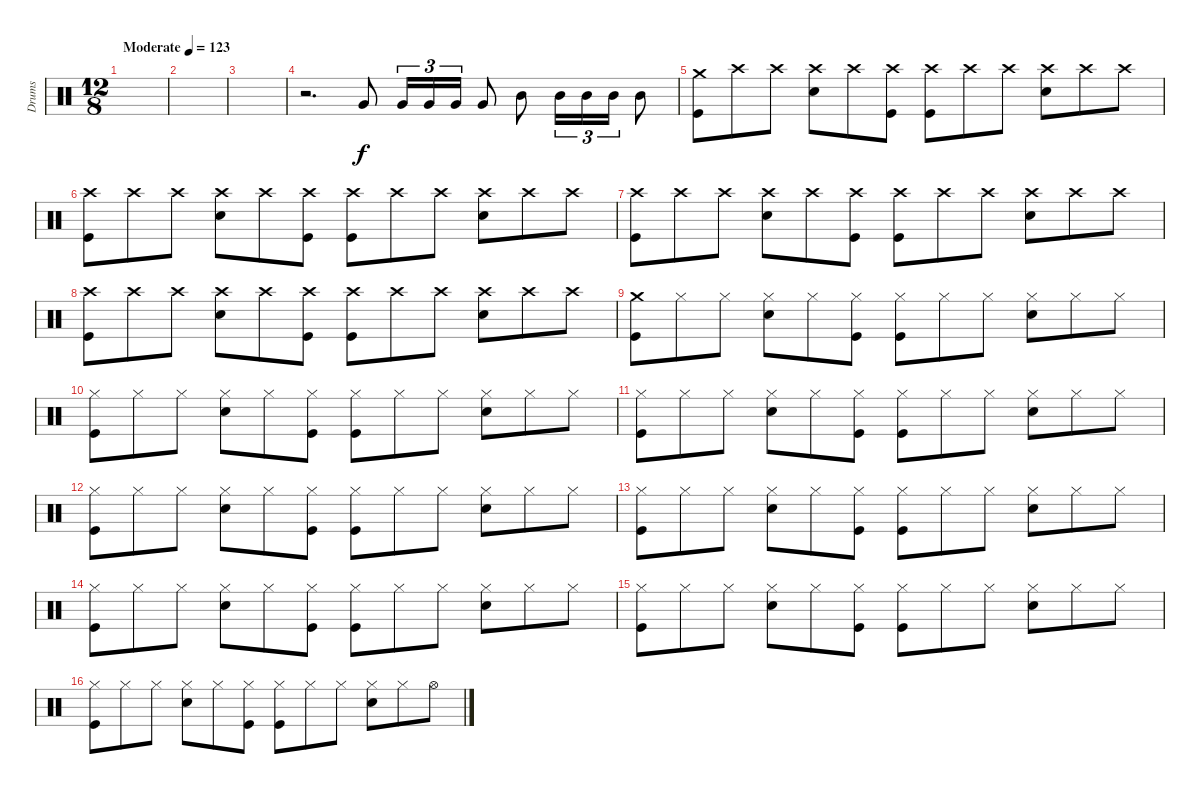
\track ("Drums" "Drums") {instrument percussion}
\staff {score}
\articulation defaults
\ts (12 8)
\tempo (123 "Moderate")
\clef neutral
\ks c
|
|
|
r.2{d} "Very Low Tom (hit)".8 "Very Low Tom (hit)".16{tu (3 2)} "Very Low Tom (hit)".16{tu (3 2)} "Very Low Tom (hit)".16{tu (3 2)} "Very Low Tom (hit)".8 "Mid Tom (hit)".8 "Mid Tom (hit)".16{tu (3 2)} "Mid Tom (hit)".16{tu (3 2)} "Mid Tom (hit)".16{tu (3 2)} "Mid Tom (hit)".8 |
("Crash medium (hit)" "Kick (hit)").8 "Crash high (hit)".8 "Crash high (hit)".8 ("Crash high (hit)" "Snare (hit) 2").8 "Crash high (hit)".8 ("Crash high (hit)" "Kick (hit)").8 ("Crash high (hit)" "Kick (hit)").8 "Crash high (hit)".8 "Crash high (hit)".8 ("Crash high (hit)" "Snare (hit) 2").8 "Crash high (hit)".8 "Crash high (hit)".8 |
("Crash high (hit)" "Kick (hit)").8 "Crash high (hit)".8 "Crash high (hit)".8 ("Crash high (hit)" "Snare (hit) 2").8 "Crash high (hit)".8 ("Crash high (hit)" "Kick (hit)").8 ("Crash high (hit)" "Kick (hit)").8 "Crash high (hit)".8 "Crash high (hit)".8 ("Crash high (hit)" "Snare (hit) 2").8 "Crash high (hit)".8 "Crash high (hit)".8 |
("Crash high (hit)" "Kick (hit)").8 "Crash high (hit)".8 "Crash high (hit)".8 ("Crash high (hit)" "Snare (hit) 2").8 "Crash high (hit)".8 ("Crash high (hit)" "Kick (hit)").8 ("Crash high (hit)" "Kick (hit)").8 "Crash high (hit)".8 "Crash high (hit)".8 ("Crash high (hit)" "Snare (hit) 2").8 "Crash high (hit)".8 "Crash high (hit)".8 |
("Crash high (hit)" "Kick (hit)").8 "Crash high (hit)".8 "Crash high (hit)".8 ("Crash high (hit)" "Snare (hit) 2").8 "Crash high (hit)".8 ("Crash high (hit)" "Kick (hit)").8 ("Crash high (hit)" "Kick (hit)").8 "Crash high (hit)".8 "Crash high (hit)".8 ("Crash high (hit)" "Snare (hit) 2").8 "Crash high (hit)".8 "Crash high (hit)".8 |
("Crash medium (hit)" "Kick (hit)").8 "Hi-Hat (closed)".8 "Hi-Hat (closed)".8 ("Hi-Hat (closed)" "Snare (hit) 2").8 "Hi-Hat (closed)".8 ("Hi-Hat (closed)" "Kick (hit)").8 ("Hi-Hat (closed)" "Kick (hit)").8 "Hi-Hat (closed)".8 "Hi-Hat (closed)".8 ("Hi-Hat (closed)" "Snare (hit) 2").8 "Hi-Hat (closed)".8 "Hi-Hat (closed)".8 |
("Hi-Hat (closed)" "Kick (hit)").8 "Hi-Hat (closed)".8 "Hi-Hat (closed)".8 ("Hi-Hat (closed)" "Snare (hit) 2").8 "Hi-Hat (closed)".8 ("Hi-Hat (closed)" "Kick (hit)").8 ("Hi-Hat (closed)" "Kick (hit)").8 "Hi-Hat (closed)".8 "Hi-Hat (closed)".8 ("Hi-Hat (closed)" "Snare (hit) 2").8 "Hi-Hat (closed)".8 "Hi-Hat (closed)".8 |
("Hi-Hat (closed)" "Kick (hit)").8 "Hi-Hat (closed)".8 "Hi-Hat (closed)".8 ("Hi-Hat (closed)" "Snare (hit) 2").8 "Hi-Hat (closed)".8 ("Hi-Hat (closed)" "Kick (hit)").8 ("Hi-Hat (closed)" "Kick (hit)").8 "Hi-Hat (closed)".8 "Hi-Hat (closed)".8 ("Hi-Hat (closed)" "Snare (hit) 2").8 "Hi-Hat (closed)".8 "Hi-Hat (closed)".8 |
("Hi-Hat (closed)" "Kick (hit)").8 "Hi-Hat (closed)".8 "Hi-Hat (closed)".8 ("Hi-Hat (closed)" "Snare (hit) 2").8 "Hi-Hat (closed)".8 ("Hi-Hat (closed)" "Kick (hit)").8 ("Hi-Hat (closed)" "Kick (hit)").8 "Hi-Hat (closed)".8 "Hi-Hat (closed)".8 ("Hi-Hat (closed)" "Snare (hit) 2").8 "Hi-Hat (closed)".8 "Hi-Hat (closed)".8 |
("Hi-Hat (closed)" "Kick (hit)").8 "Hi-Hat (closed)".8 "Hi-Hat (closed)".8 ("Hi-Hat (closed)" "Snare (hit) 2").8 "Hi-Hat (closed)".8 ("Hi-Hat (closed)" "Kick (hit)").8 ("Hi-Hat (closed)" "Kick (hit)").8 "Hi-Hat (closed)".8 "Hi-Hat (closed)".8 ("Hi-Hat (closed)" "Snare (hit) 2").8 "Hi-Hat (closed)".8 "Hi-Hat (closed)".8 |
("Hi-Hat (closed)" "Kick (hit)").8 "Hi-Hat (closed)".8 "Hi-Hat (closed)".8 ("Hi-Hat (closed)" "Snare (hit) 2").8 "Hi-Hat (closed)".8 ("Hi-Hat (closed)" "Kick (hit)").8 ("Hi-Hat (closed)" "Kick (hit)").8 "Hi-Hat (closed)".8 "Hi-Hat (closed)".8 ("Hi-Hat (closed)" "Snare (hit) 2").8 "Hi-Hat (closed)".8 "Hi-Hat (closed)".8 |
("Hi-Hat (closed)" "Kick (hit)").8 "Hi-Hat (closed)".8 "Hi-Hat (closed)".8 ("Hi-Hat (closed)" "Snare (hit) 2").8 "Hi-Hat (closed)".8 ("Hi-Hat (closed)" "Kick (hit)").8 ("Hi-Hat (closed)" "Kick (hit)").8 "Hi-Hat (closed)".8 "Hi-Hat (closed)".8 ("Hi-Hat (closed)" "Snare (hit) 2").8 "Hi-Hat (closed)".8 "Hi-Hat (closed)".8 |
("Hi-Hat (closed)" "Kick (hit)").8 "Hi-Hat (closed)".8 "Hi-Hat (closed)".8 ("Hi-Hat (closed)" "Snare (hit) 2").8 "Hi-Hat (closed)".8 ("Hi-Hat (closed)" "Kick (hit)").8 ("Hi-Hat (closed)" "Kick (hit)").8 "Hi-Hat (closed)".8 "Hi-Hat (closed)".8 ("Hi-Hat (closed)" "Snare (hit) 2").8 "Hi-Hat (closed)".8 "Hi-Hat (open)".8
